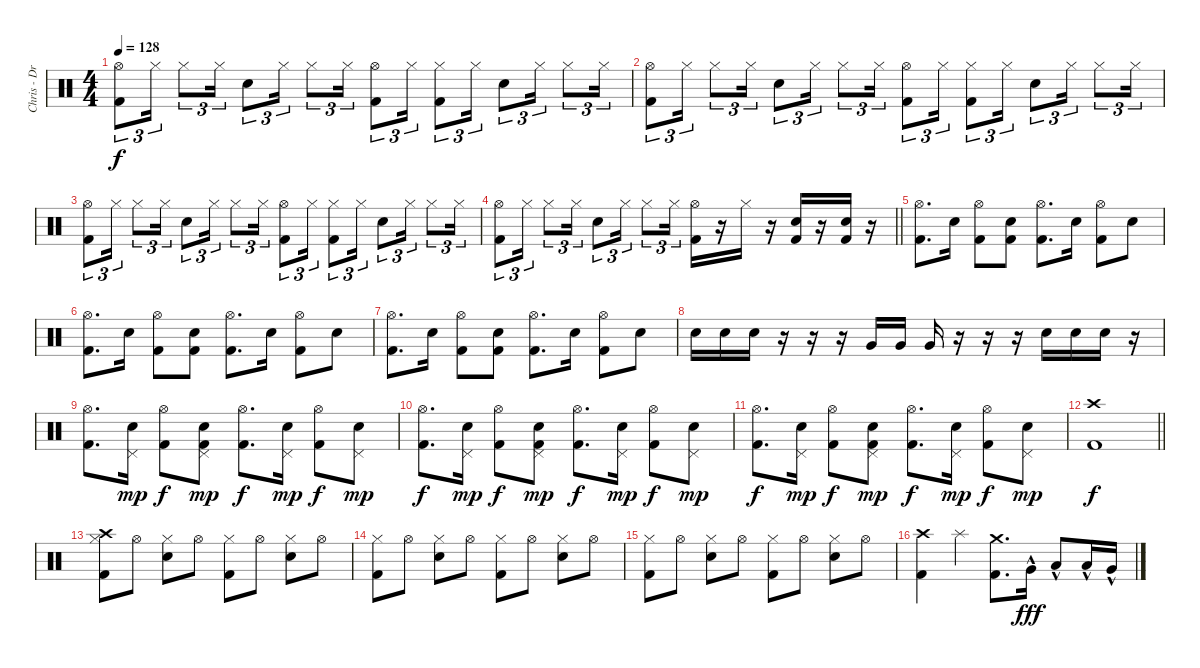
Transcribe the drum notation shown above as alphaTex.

\track ("Chris - Drums" "Chris - Dr") {instrument percussion}
\staff {score}
\articulation defaults
\ts (4 4)
\tempo 128
\clef neutral
\ks c
("Hi-Hat (open)" "Kick (hit) 2").8{tu (3 2) dy f} "Hi-Hat (closed)".16{tu (3 2)} "Hi-Hat (closed)".8{tu (3 2)} "Hi-Hat (closed)".16{tu (3 2)} "Electric Snare (hit)".8{tu (3 2)} "Hi-Hat (closed)".16{tu (3 2)} "Hi-Hat (closed)".8{tu (3 2)} "Hi-Hat (closed)".16{tu (3 2)} ("Hi-Hat (open)" "Kick (hit) 2").8{tu (3 2)} "Hi-Hat (closed)".16{tu (3 2)} ("Hi-Hat (closed)" "Kick (hit) 2").8{tu (3 2)} "Hi-Hat (closed)".16{tu (3 2)} "Electric Snare (hit)".8{tu (3 2)} "Hi-Hat (closed)".16{tu (3 2)} "Hi-Hat (closed)".8{tu (3 2)} "Hi-Hat (closed)".16{tu (3 2)} |
("Hi-Hat (open)" "Kick (hit) 2").8{tu (3 2)} "Hi-Hat (closed)".16{tu (3 2)} "Hi-Hat (closed)".8{tu (3 2)} "Hi-Hat (closed)".16{tu (3 2)} "Electric Snare (hit)".8{tu (3 2)} "Hi-Hat (closed)".16{tu (3 2)} "Hi-Hat (closed)".8{tu (3 2)} "Hi-Hat (closed)".16{tu (3 2)} ("Hi-Hat (open)" "Kick (hit) 2").8{tu (3 2)} "Hi-Hat (closed)".16{tu (3 2)} ("Hi-Hat (closed)" "Kick (hit) 2").8{tu (3 2)} "Hi-Hat (closed)".16{tu (3 2)} "Electric Snare (hit)".8{tu (3 2)} "Hi-Hat (closed)".16{tu (3 2)} "Hi-Hat (closed)".8{tu (3 2)} "Hi-Hat (closed)".16{tu (3 2)} |
("Hi-Hat (open)" "Kick (hit) 2").8{tu (3 2)} "Hi-Hat (closed)".16{tu (3 2)} "Hi-Hat (closed)".8{tu (3 2)} "Hi-Hat (closed)".16{tu (3 2)} "Electric Snare (hit)".8{tu (3 2)} "Hi-Hat (closed)".16{tu (3 2)} "Hi-Hat (closed)".8{tu (3 2)} "Hi-Hat (closed)".16{tu (3 2)} ("Hi-Hat (open)" "Kick (hit) 2").8{tu (3 2)} "Hi-Hat (closed)".16{tu (3 2)} ("Hi-Hat (closed)" "Kick (hit) 2").8{tu (3 2)} "Hi-Hat (closed)".16{tu (3 2)} "Electric Snare (hit)".8{tu (3 2)} "Hi-Hat (closed)".16{tu (3 2)} "Hi-Hat (closed)".8{tu (3 2)} "Hi-Hat (closed)".16{tu (3 2)} |
\barLineRight lightlight
("Hi-Hat (open)" "Kick (hit) 2").8{tu (3 2)} "Hi-Hat (closed)".16{tu (3 2)} "Hi-Hat (closed)".8{tu (3 2)} "Hi-Hat (closed)".16{tu (3 2)} "Electric Snare (hit)".8{tu (3 2)} "Hi-Hat (closed)".16{tu (3 2)} "Hi-Hat (closed)".8{tu (3 2)} "Hi-Hat (closed)".16{tu (3 2)} ("Hi-Hat (open)" "Kick (hit) 2").16 r.16 "Hi-Hat (closed)".16 r.16 ("Electric Snare (hit)" "Kick (hit) 2").16 r.16 ("Electric Snare (hit)" "Kick (hit) 2").16 r.16 |
("Hi-Hat (open)" "Kick (hit) 2").8{d} "Electric Snare (hit)".16 ("Hi-Hat (open)" "Kick (hit) 2").8 ("Electric Snare (hit)" "Kick (hit) 2").8 ("Hi-Hat (open)" "Kick (hit) 2").8{d} "Electric Snare (hit)".16 ("Hi-Hat (open)" "Kick (hit) 2").8 "Electric Snare (hit)".8 |
("Hi-Hat (open)" "Kick (hit) 2").8{d} "Electric Snare (hit)".16 ("Hi-Hat (open)" "Kick (hit) 2").8 ("Electric Snare (hit)" "Kick (hit) 2").8 ("Hi-Hat (open)" "Kick (hit) 2").8{d} "Electric Snare (hit)".16 ("Hi-Hat (open)" "Kick (hit) 2").8 "Electric Snare (hit)".8 |
("Hi-Hat (open)" "Kick (hit) 2").8{d} "Electric Snare (hit)".16 ("Hi-Hat (open)" "Kick (hit) 2").8 ("Electric Snare (hit)" "Kick (hit) 2").8 ("Hi-Hat (open)" "Kick (hit) 2").8{d} "Electric Snare (hit)".16 ("Hi-Hat (open)" "Kick (hit) 2").8 "Electric Snare (hit)".8 |
"Electric Snare (hit)".16 "Electric Snare (hit)".16 "Electric Snare (hit)".16 r.16 r.16 r.16 "Very Low Tom (hit)".16 "Very Low Tom (hit)".16 "Very Low Tom (hit)".16 r.16 r.16 r.16 "Electric Snare (hit)".16 "Electric Snare (hit)".16 "Electric Snare (hit)".16 r.16 |
("Hi-Hat (open)" "Kick (hit) 2").8{d} ("Pedal Hi-Hat (hit)" "Electric Snare (hit)").16{dy mp} ("Hi-Hat (open)" "Kick (hit) 2").8{dy f} ("Pedal Hi-Hat (hit)" "Electric Snare (hit)" "Kick (hit) 2").8{dy mp} ("Hi-Hat (open)" "Kick (hit) 2").8{d dy f} ("Pedal Hi-Hat (hit)" "Electric Snare (hit)").16{dy mp} ("Hi-Hat (open)" "Kick (hit) 2").8{dy f} ("Pedal Hi-Hat (hit)" "Electric Snare (hit)").8{dy mp} |
("Hi-Hat (open)" "Kick (hit) 2").8{d dy f} ("Pedal Hi-Hat (hit)" "Electric Snare (hit)").16{dy mp} ("Hi-Hat (open)" "Kick (hit) 2").8{dy f} ("Pedal Hi-Hat (hit)" "Electric Snare (hit)" "Kick (hit) 2").8{dy mp} ("Hi-Hat (open)" "Kick (hit) 2").8{d dy f} ("Pedal Hi-Hat (hit)" "Electric Snare (hit)").16{dy mp} ("Hi-Hat (open)" "Kick (hit) 2").8{dy f} ("Pedal Hi-Hat (hit)" "Electric Snare (hit)").8{dy mp} |
("Hi-Hat (open)" "Kick (hit) 2").8{d dy f} ("Pedal Hi-Hat (hit)" "Electric Snare (hit)").16{dy mp} ("Hi-Hat (open)" "Kick (hit) 2").8{dy f} ("Pedal Hi-Hat (hit)" "Electric Snare (hit)" "Kick (hit) 2").8{dy mp} ("Hi-Hat (open)" "Kick (hit) 2").8{d dy f} ("Pedal Hi-Hat (hit)" "Electric Snare (hit)").16{dy mp} ("Hi-Hat (open)" "Kick (hit) 2").8{dy f} ("Pedal Hi-Hat (hit)" "Electric Snare (hit)").8{dy mp} |
\barLineRight lightlight
("Crash high (hit)" "Kick (hit) 2").1{dy f} |
("Crash high (hit)" "Hi-Hat (closed)" "Kick (hit) 2").8 "Hi-Hat (open)".8 ("Hi-Hat (closed)" "Electric Snare (hit)").8 "Hi-Hat (open)".8 ("Hi-Hat (closed)" "Kick (hit) 2").8 "Hi-Hat (open)".8 ("Hi-Hat (closed)" "Electric Snare (hit)").8 "Hi-Hat (open)".8 |
("Hi-Hat (closed)" "Kick (hit) 2").8 "Hi-Hat (open)".8 ("Hi-Hat (closed)" "Electric Snare (hit)").8 "Hi-Hat (open)".8 ("Hi-Hat (closed)" "Kick (hit) 2").8 "Hi-Hat (open)".8 ("Hi-Hat (closed)" "Electric Snare (hit)").8 "Hi-Hat (open)".8 |
("Hi-Hat (closed)" "Kick (hit) 2").8 "Hi-Hat (open)".8 ("Hi-Hat (closed)" "Electric Snare (hit)").8 "Hi-Hat (open)".8 ("Hi-Hat (closed)" "Kick (hit) 2").8 "Hi-Hat (open)".8 ("Hi-Hat (closed)" "Electric Snare (hit)").8 "Hi-Hat (open)".8 |
("Crash high (hit)" "Kick (hit) 2").4 "Splash (hit)".4 ("Crash medium (hit)" "Kick (hit) 2").8{d} "Very Low Tom (hit)"{hac}.16{dy fff} "Low Tom (hit)"{hac}.8 "Low Tom (hit)"{hac}.16 "Very Low Tom (hit)"{hac}.16
